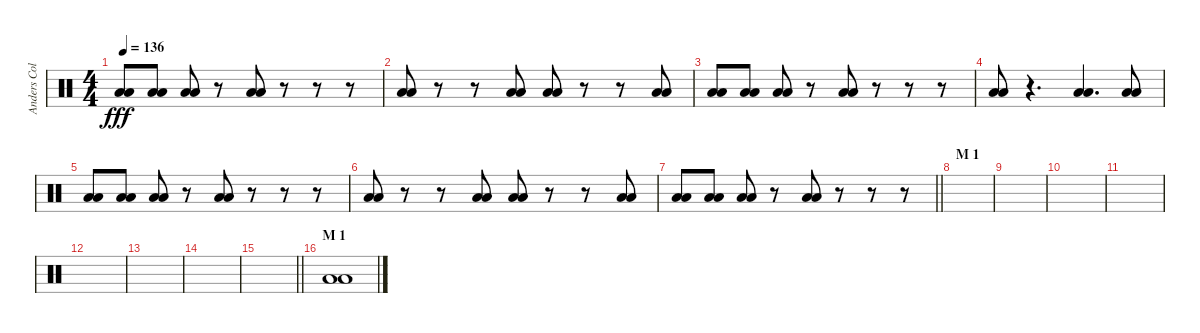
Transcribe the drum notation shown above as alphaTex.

\track ("Anders Colsefni" "Anders Col") {instrument percussion}
\staff {score}
\articulation defaults
\ts (4 4)
\tempo 136
\clef neutral
\ks c
("Low Floor Tom (hit)" "Low Floor Tom (hit)").8{dy fff} ("Low Floor Tom (hit)" "Low Floor Tom (hit)").8 ("Low Floor Tom (hit)" "Low Floor Tom (hit)").8 r.8 ("Low Floor Tom (hit)" "Low Floor Tom (hit)").8 r.8 r.8 r.8 |
("Low Floor Tom (hit)" "Low Floor Tom (hit)").8 r.8 r.8 ("Low Floor Tom (hit)" "Low Floor Tom (hit)").8 ("Low Floor Tom (hit)" "Low Floor Tom (hit)").8 r.8 r.8 ("Low Floor Tom (hit)" "Low Floor Tom (hit)").8 |
("Low Floor Tom (hit)" "Low Floor Tom (hit)").8 ("Low Floor Tom (hit)" "Low Floor Tom (hit)").8 ("Low Floor Tom (hit)" "Low Floor Tom (hit)").8 r.8 ("Low Floor Tom (hit)" "Low Floor Tom (hit)").8 r.8 r.8 r.8 |
("Low Floor Tom (hit)" "Low Floor Tom (hit)").8 r.4{d} ("Low Floor Tom (hit)" "Low Floor Tom (hit)").4{d} ("Low Floor Tom (hit)" "Low Floor Tom (hit)").8 |
("Low Floor Tom (hit)" "Low Floor Tom (hit)").8 ("Low Floor Tom (hit)" "Low Floor Tom (hit)").8 ("Low Floor Tom (hit)" "Low Floor Tom (hit)").8 r.8 ("Low Floor Tom (hit)" "Low Floor Tom (hit)").8 r.8 r.8 r.8 |
("Low Floor Tom (hit)" "Low Floor Tom (hit)").8 r.8 r.8 ("Low Floor Tom (hit)" "Low Floor Tom (hit)").8 ("Low Floor Tom (hit)" "Low Floor Tom (hit)").8 r.8 r.8 ("Low Floor Tom (hit)" "Low Floor Tom (hit)").8 |
\barLineRight lightlight
("Low Floor Tom (hit)" "Low Floor Tom (hit)").8 ("Low Floor Tom (hit)" "Low Floor Tom (hit)").8 ("Low Floor Tom (hit)" "Low Floor Tom (hit)").8 r.8 ("Low Floor Tom (hit)" "Low Floor Tom (hit)").8 r.8 r.8 r.8 |
\section ("" "M 1")
|
|
|
|
|
|
|
\barLineRight lightlight
|
\section ("" "M 1")
("Low Floor Tom (hit)" "Low Floor Tom (hit)").1
